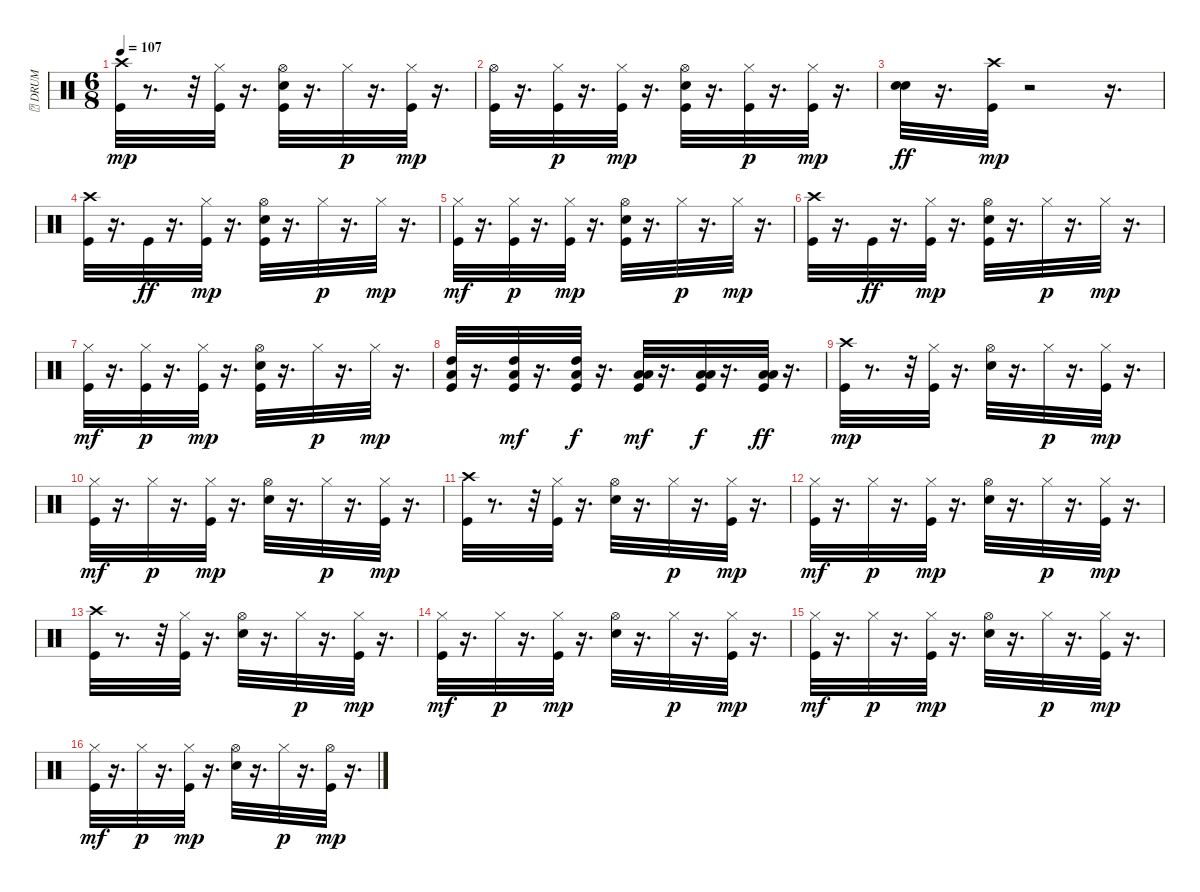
\track ("\t DRUM" "\t DRUM") {instrument percussion}
\staff {score}
\articulation defaults
\ts (6 8)
\tempo 107
\clef neutral
\ks c
("Kick (hit)" "Crash high (hit)").32{dy mp} r.8{d} r.32 ("Kick (hit)" "Hi-Hat (closed)").32 r.16{d} ("Kick (hit)" "Electric Snare (hit)" "Hi-Hat (open)").32 r.16{d} "Hi-Hat (closed)".32{dy p} r.16{d} ("Kick (hit)" "Hi-Hat (closed)").32{dy mp} r.16{d} |
("Kick (hit)" "Hi-Hat (open)").32 r.16{d} ("Kick (hit)" "Hi-Hat (closed)").32{dy p} r.16{d} ("Kick (hit)" "Hi-Hat (closed)").32{dy mp} r.16{d} ("Kick (hit)" "Electric Snare (hit)" "Hi-Hat (open)").32 r.16{d} ("Kick (hit)" "Hi-Hat (closed)").32{dy p} r.16{d} ("Kick (hit)" "Hi-Hat (closed)").32{dy mp} r.16{d} |
("Electric Snare (hit)" "Electric Snare (hit)").32{dy ff} r.16{d} ("Kick (hit)" "Crash high (hit)").32{dy mp} r.2 r.16{d} |
("Kick (hit)" "Crash high (hit)").32 r.16{d} "Kick (hit)".32{dy ff} r.16{d} ("Kick (hit)" "Hi-Hat (closed)").32{dy mp} r.16{d} ("Kick (hit)" "Electric Snare (hit)" "Hi-Hat (open)").32 r.16{d} "Hi-Hat (closed)".32{dy p} r.16{d} "Hi-Hat (closed)".32{dy mp} r.16{d} |
("Kick (hit)" "Hi-Hat (closed)").32{dy mf} r.16{d} ("Kick (hit)" "Hi-Hat (closed)").32{dy p} r.16{d} ("Kick (hit)" "Hi-Hat (closed)").32{dy mp} r.16{d} ("Kick (hit)" "Electric Snare (hit)" "Hi-Hat (open)").32 r.16{d} "Hi-Hat (closed)".32{dy p} r.16{d} "Hi-Hat (closed)".32{dy mp} r.16{d} |
("Kick (hit)" "Crash high (hit)").32 r.16{d} "Kick (hit)".32{dy ff} r.16{d} ("Kick (hit)" "Hi-Hat (closed)").32{dy mp} r.16{d} ("Kick (hit)" "Electric Snare (hit)" "Hi-Hat (open)").32 r.16{d} "Hi-Hat (closed)".32{dy p} r.16{d} "Hi-Hat (closed)".32{dy mp} r.16{d} |
("Kick (hit)" "Hi-Hat (closed)").32{dy mf} r.16{d} ("Kick (hit)" "Hi-Hat (closed)").32{dy p} r.16{d} ("Kick (hit)" "Hi-Hat (closed)").32{dy mp} r.16{d} ("Kick (hit)" "Electric Snare (hit)" "Hi-Hat (open)").32 r.16{d} "Hi-Hat (closed)".32{dy p} r.16{d} "Hi-Hat (closed)".32{dy mp} r.16{d} |
("Kick (hit)" "Low Tom (hit)" "High Tom (hit)").32 r.16{d} ("Kick (hit)" "Low Tom (hit)" "High Tom (hit)").32{dy mf} r.16{d} ("Kick (hit)" "Low Tom (hit)" "High Tom (hit)").32{dy f} r.16{d} ("Kick (hit)" "Low Floor Tom (hit)" "Low Tom (hit)").32{dy mf} r.16{d} ("Kick (hit)" "Low Floor Tom (hit)" "Low Tom (hit)").32{dy f} r.16{d} ("Kick (hit)" "Low Floor Tom (hit)" "Low Tom (hit)").32{dy ff} r.16{d} |
("Kick (hit)" "Crash high (hit)").32{dy mp} r.8{d} r.32 ("Kick (hit)" "Hi-Hat (closed)").32 r.16{d} ("Electric Snare (hit)" "Hi-Hat (open)").32 r.16{d} "Hi-Hat (closed)".32{dy p} r.16{d} ("Kick (hit)" "Hi-Hat (closed)").32{dy mp} r.16{d} |
("Kick (hit)" "Hi-Hat (closed)").32{dy mf} r.16{d} "Hi-Hat (closed)".32{dy p} r.16{d} ("Kick (hit)" "Hi-Hat (closed)").32{dy mp} r.16{d} ("Electric Snare (hit)" "Hi-Hat (open)").32 r.16{d} "Hi-Hat (closed)".32{dy p} r.16{d} ("Kick (hit)" "Hi-Hat (closed)").32{dy mp} r.16{d} |
("Kick (hit)" "Crash high (hit)").32 r.8{d} r.32 ("Kick (hit)" "Hi-Hat (closed)").32 r.16{d} ("Electric Snare (hit)" "Hi-Hat (open)").32 r.16{d} "Hi-Hat (closed)".32{dy p} r.16{d} ("Kick (hit)" "Hi-Hat (closed)").32{dy mp} r.16{d} |
("Kick (hit)" "Hi-Hat (closed)").32{dy mf} r.16{d} "Hi-Hat (closed)".32{dy p} r.16{d} ("Kick (hit)" "Hi-Hat (closed)").32{dy mp} r.16{d} ("Electric Snare (hit)" "Hi-Hat (open)").32 r.16{d} "Hi-Hat (closed)".32{dy p} r.16{d} ("Kick (hit)" "Hi-Hat (closed)").32{dy mp} r.16{d} |
("Kick (hit)" "Crash high (hit)").32 r.8{d} r.32 ("Kick (hit)" "Hi-Hat (closed)").32 r.16{d} ("Electric Snare (hit)" "Hi-Hat (open)").32 r.16{d} "Hi-Hat (closed)".32{dy p} r.16{d} ("Kick (hit)" "Hi-Hat (closed)").32{dy mp} r.16{d} |
("Kick (hit)" "Hi-Hat (closed)").32{dy mf} r.16{d} "Hi-Hat (closed)".32{dy p} r.16{d} ("Kick (hit)" "Hi-Hat (closed)").32{dy mp} r.16{d} ("Electric Snare (hit)" "Hi-Hat (open)").32 r.16{d} "Hi-Hat (closed)".32{dy p} r.16{d} ("Kick (hit)" "Hi-Hat (closed)").32{dy mp} r.16{d} |
("Kick (hit)" "Hi-Hat (closed)").32{dy mf} r.16{d} "Hi-Hat (closed)".32{dy p} r.16{d} ("Kick (hit)" "Hi-Hat (closed)").32{dy mp} r.16{d} ("Electric Snare (hit)" "Hi-Hat (open)").32 r.16{d} "Hi-Hat (closed)".32{dy p} r.16{d} ("Kick (hit)" "Hi-Hat (closed)").32{dy mp} r.16{d} |
("Kick (hit)" "Hi-Hat (closed)").32{dy mf} r.16{d} "Hi-Hat (closed)".32{dy p} r.16{d} ("Kick (hit)" "Hi-Hat (closed)").32{dy mp} r.16{d} ("Electric Snare (hit)" "Hi-Hat (open)").32 r.16{d} "Hi-Hat (closed)".32{dy p} r.16{d} ("Kick (hit)" "Hi-Hat (open)").32{dy mp} r.16{d}
